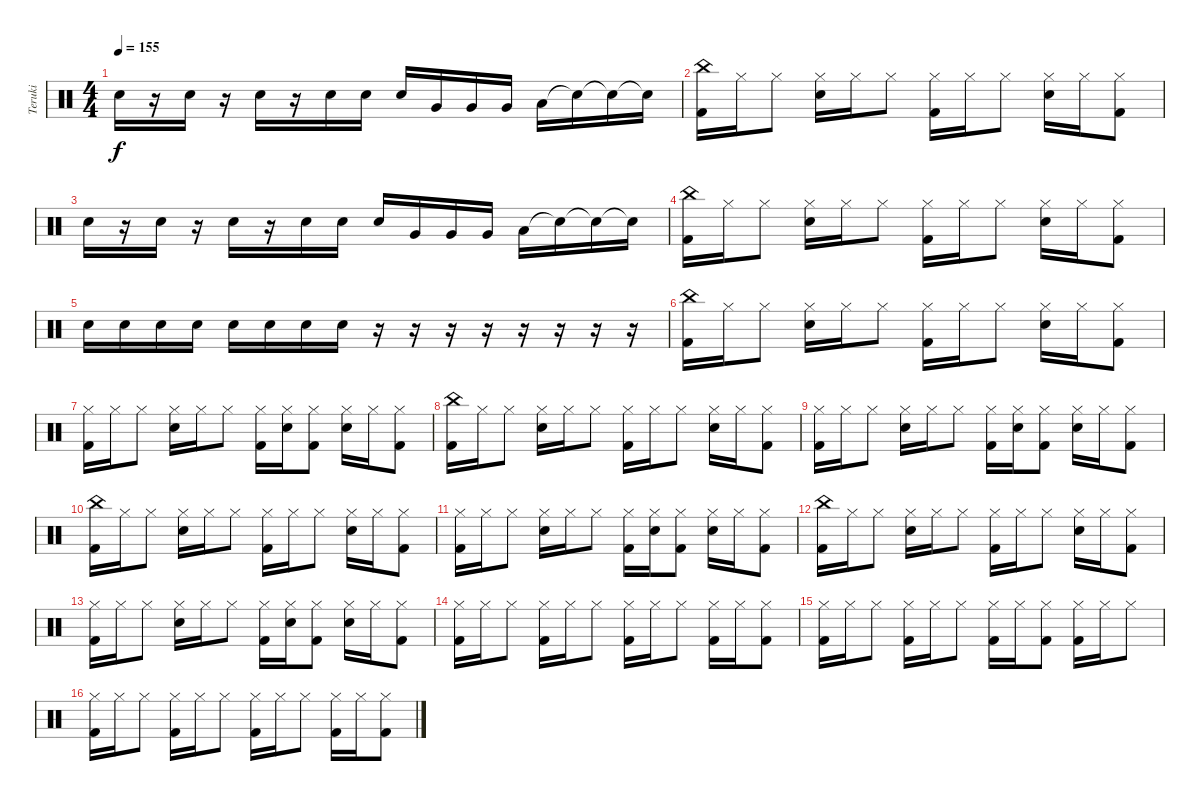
\track ("Teruki" "Teruki") {instrument percussion}
\staff {score}
\articulation defaults
\ts (4 4)
\tempo 155
\clef neutral
\ks c "Snare (hit) 2".16{dy f}
r.16 "Snare (hit) 2".16 r.16 "Snare (hit) 2".16 r.16 "Snare (hit) 2".16 "Snare (hit) 2".16 "Snare (hit) 2".16 "Very Low Tom (hit)".16 "Very Low Tom (hit)".16 "Very Low Tom (hit)".16 "Low Floor Tom (hit)".16 "Snare (hit)"{t}.16 "Snare (hit)"{t}.16 "Snare (hit)"{t}.16 |
("China (hit)" "Kick (hit) 2").16 "Hi-Hat (closed)".16 "Hi-Hat (closed)".8 ("Hi-Hat (closed)" "Snare (hit) 2").16 "Hi-Hat (closed)".16 "Hi-Hat (closed)".8 ("Hi-Hat (closed)" "Kick (hit) 2").16 "Hi-Hat (closed)".16 "Hi-Hat (closed)".8 ("Hi-Hat (closed)" "Snare (hit) 2").16 "Hi-Hat (closed)".16 ("Hi-Hat (closed)" "Kick (hit) 2").8 |
"Snare (hit) 2".16 r.16 "Snare (hit) 2".16 r.16 "Snare (hit) 2".16 r.16 "Snare (hit) 2".16 "Snare (hit) 2".16 "Snare (hit) 2".16 "Very Low Tom (hit)".16 "Very Low Tom (hit)".16 "Very Low Tom (hit)".16 "Low Floor Tom (hit)".16 "Snare (hit)"{t}.16 "Snare (hit)"{t}.16 "Snare (hit)"{t}.16 |
("China (hit)" "Kick (hit) 2").16 "Hi-Hat (closed)".16 "Hi-Hat (closed)".8 ("Hi-Hat (closed)" "Snare (hit) 2").16 "Hi-Hat (closed)".16 "Hi-Hat (closed)".8 ("Hi-Hat (closed)" "Kick (hit) 2").16 "Hi-Hat (closed)".16 "Hi-Hat (closed)".8 ("Hi-Hat (closed)" "Snare (hit) 2").16 "Hi-Hat (closed)".16 ("Hi-Hat (closed)" "Kick (hit) 2").8 |
"Snare (hit) 2".16 "Snare (hit) 2".16 "Snare (hit) 2".16 "Snare (hit) 2".16 "Snare (hit) 2".16 "Snare (hit) 2".16 "Snare (hit) 2".16 "Snare (hit) 2".16 r.16 r.16 r.16 r.16 r.16 r.16 r.16 r.16 |
("China (hit)" "Kick (hit) 2").16 "Hi-Hat (closed)".16 "Hi-Hat (closed)".8 ("Hi-Hat (closed)" "Snare (hit) 2").16 "Hi-Hat (closed)".16 "Hi-Hat (closed)".8 ("Hi-Hat (closed)" "Kick (hit) 2").16 "Hi-Hat (closed)".16 "Hi-Hat (closed)".8 ("Hi-Hat (closed)" "Snare (hit) 2").16 "Hi-Hat (closed)".16 ("Hi-Hat (closed)" "Kick (hit) 2").8 |
("Hi-Hat (closed)" "Kick (hit) 2").16 "Hi-Hat (closed)".16 "Hi-Hat (closed)".8 ("Hi-Hat (closed)" "Snare (hit) 2").16 "Hi-Hat (closed)".16 "Hi-Hat (closed)".8 ("Hi-Hat (closed)" "Kick (hit) 2").16 ("Hi-Hat (closed)" "Snare (hit) 2").16 ("Hi-Hat (closed)" "Kick (hit) 2").8 ("Hi-Hat (closed)" "Snare (hit) 2").16 "Hi-Hat (closed)".16 ("Hi-Hat (closed)" "Kick (hit) 2").8 |
("China (hit)" "Kick (hit) 2").16 "Hi-Hat (closed)".16 "Hi-Hat (closed)".8 ("Hi-Hat (closed)" "Snare (hit) 2").16 "Hi-Hat (closed)".16 "Hi-Hat (closed)".8 ("Hi-Hat (closed)" "Kick (hit) 2").16 "Hi-Hat (closed)".16 "Hi-Hat (closed)".8 ("Hi-Hat (closed)" "Snare (hit) 2").16 "Hi-Hat (closed)".16 ("Hi-Hat (closed)" "Kick (hit) 2").8 |
("Hi-Hat (closed)" "Kick (hit) 2").16 "Hi-Hat (closed)".16 "Hi-Hat (closed)".8 ("Hi-Hat (closed)" "Snare (hit) 2").16 "Hi-Hat (closed)".16 "Hi-Hat (closed)".8 ("Hi-Hat (closed)" "Kick (hit) 2").16 ("Hi-Hat (closed)" "Snare (hit) 2").16 ("Hi-Hat (closed)" "Kick (hit) 2").8 ("Hi-Hat (closed)" "Snare (hit) 2").16 "Hi-Hat (closed)".16 ("Hi-Hat (closed)" "Kick (hit) 2").8 |
("China (hit)" "Kick (hit) 2").16 "Hi-Hat (closed)".16 "Hi-Hat (closed)".8 ("Hi-Hat (closed)" "Snare (hit) 2").16 "Hi-Hat (closed)".16 "Hi-Hat (closed)".8 ("Hi-Hat (closed)" "Kick (hit) 2").16 "Hi-Hat (closed)".16 "Hi-Hat (closed)".8 ("Hi-Hat (closed)" "Snare (hit) 2").16 "Hi-Hat (closed)".16 ("Hi-Hat (closed)" "Kick (hit) 2").8 |
("Hi-Hat (closed)" "Kick (hit) 2").16 "Hi-Hat (closed)".16 "Hi-Hat (closed)".8 ("Hi-Hat (closed)" "Snare (hit) 2").16 "Hi-Hat (closed)".16 "Hi-Hat (closed)".8 ("Hi-Hat (closed)" "Kick (hit) 2").16 ("Hi-Hat (closed)" "Snare (hit) 2").16 ("Hi-Hat (closed)" "Kick (hit) 2").8 ("Hi-Hat (closed)" "Snare (hit) 2").16 "Hi-Hat (closed)".16 ("Hi-Hat (closed)" "Kick (hit) 2").8 |
("China (hit)" "Kick (hit) 2").16 "Hi-Hat (closed)".16 "Hi-Hat (closed)".8 ("Hi-Hat (closed)" "Snare (hit) 2").16 "Hi-Hat (closed)".16 "Hi-Hat (closed)".8 ("Hi-Hat (closed)" "Kick (hit) 2").16 "Hi-Hat (closed)".16 "Hi-Hat (closed)".8 ("Hi-Hat (closed)" "Snare (hit) 2").16 "Hi-Hat (closed)".16 ("Hi-Hat (closed)" "Kick (hit) 2").8 |
("Hi-Hat (closed)" "Kick (hit) 2").16 "Hi-Hat (closed)".16 "Hi-Hat (closed)".8 ("Hi-Hat (closed)" "Snare (hit) 2").16 "Hi-Hat (closed)".16 "Hi-Hat (closed)".8 ("Hi-Hat (closed)" "Kick (hit) 2").16 ("Hi-Hat (closed)" "Snare (hit) 2").16 ("Hi-Hat (closed)" "Kick (hit) 2").8 ("Hi-Hat (closed)" "Snare (hit) 2").16 "Hi-Hat (closed)".16 ("Hi-Hat (closed)" "Kick (hit) 2").8 |
("Hi-Hat (closed)" "Kick (hit) 2").16 "Hi-Hat (closed)".16 "Hi-Hat (closed)".8 ("Hi-Hat (closed)" "Kick (hit) 2").16 "Hi-Hat (closed)".16 "Hi-Hat (closed)".8 ("Hi-Hat (closed)" "Kick (hit) 2").16 "Hi-Hat (closed)".16 "Hi-Hat (closed)".8 ("Hi-Hat (closed)" "Kick (hit) 2").16 "Hi-Hat (closed)".16 ("Hi-Hat (closed)" "Kick (hit) 2").8 |
("Hi-Hat (closed)" "Kick (hit) 2").16 "Hi-Hat (closed)".16 "Hi-Hat (closed)".8 ("Hi-Hat (closed)" "Kick (hit) 2").16 "Hi-Hat (closed)".16 "Hi-Hat (closed)".8 ("Hi-Hat (closed)" "Kick (hit) 2").16 "Hi-Hat (closed)".16 ("Hi-Hat (closed)" "Kick (hit) 2").8 ("Hi-Hat (closed)" "Kick (hit) 2").16 "Hi-Hat (closed)".16 "Hi-Hat (closed)".8 |
("Hi-Hat (closed)" "Kick (hit) 2").16 "Hi-Hat (closed)".16 "Hi-Hat (closed)".8 ("Hi-Hat (closed)" "Kick (hit) 2").16 "Hi-Hat (closed)".16 "Hi-Hat (closed)".8 ("Hi-Hat (closed)" "Kick (hit) 2").16 "Hi-Hat (closed)".16 "Hi-Hat (closed)".8 ("Hi-Hat (closed)" "Kick (hit) 2").16 "Hi-Hat (closed)".16 ("Hi-Hat (closed)" "Kick (hit) 2").8
